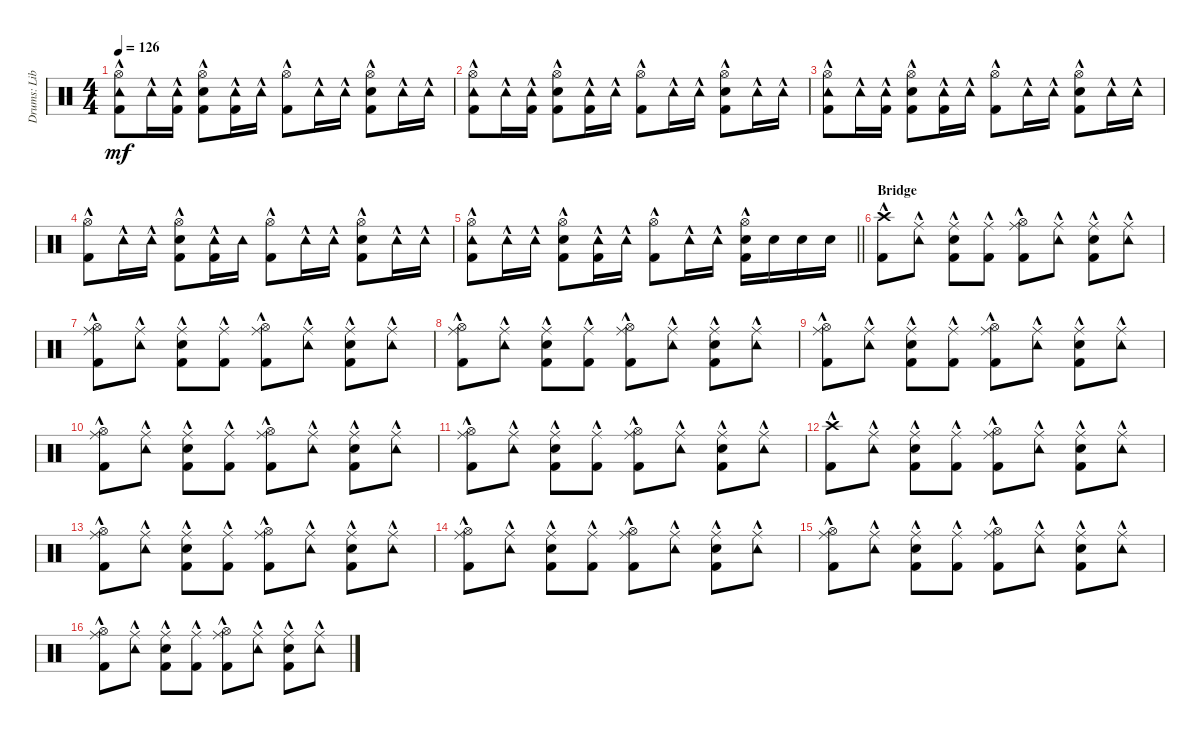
\track ("Drums: Liberty" "Drums: Lib") {instrument percussion}
\staff {score}
\articulation defaults
\ts (4 4)
\tempo 126
\clef neutral
\ks c
("Hi-Hat (open)" "Tambourine (hit)"{hac} "Kick (hit) 2"{hac}).8{dy mf} "Tambourine (hit)"{hac}.16 ("Tambourine (hit)"{hac} "Kick (hit) 2"{hac}).16 ("Hi-Hat (open)" "Snare (hit) 2"{hac} "Kick (hit) 2").8 ("Tambourine (hit)"{hac} "Kick (hit) 2"{hac}).16 "Tambourine (hit)"{hac}.16 ("Hi-Hat (open)" "Kick (hit) 2"{hac}).8 "Tambourine (hit)"{hac}.16 "Tambourine (hit)"{hac}.16 ("Hi-Hat (open)" "Snare (hit) 2"{hac} "Kick (hit) 2").8 "Tambourine (hit)"{hac}.16 "Tambourine (hit)"{hac}.16 |
("Hi-Hat (open)" "Tambourine (hit)"{hac} "Kick (hit) 2"{hac}).8 "Tambourine (hit)"{hac}.16 ("Tambourine (hit)"{hac} "Kick (hit) 2"{hac}).16 ("Hi-Hat (open)" "Snare (hit) 2"{hac} "Kick (hit) 2").8 ("Tambourine (hit)"{hac} "Kick (hit) 2"{hac}).16 "Tambourine (hit)"{hac}.16 ("Hi-Hat (open)" "Kick (hit) 2"{hac}).8 "Tambourine (hit)"{hac}.16 "Tambourine (hit)"{hac}.16 ("Hi-Hat (open)" "Snare (hit) 2"{hac} "Kick (hit) 2").8 "Tambourine (hit)"{hac}.16 "Tambourine (hit)"{hac}.16 |
("Hi-Hat (open)" "Tambourine (hit)"{hac} "Kick (hit) 2"{hac}).8 "Tambourine (hit)"{hac}.16 ("Tambourine (hit)"{hac} "Kick (hit) 2"{hac}).16 ("Hi-Hat (open)" "Snare (hit) 2"{hac} "Kick (hit) 2").8 ("Tambourine (hit)"{hac} "Kick (hit) 2"{hac}).16 "Tambourine (hit)"{hac}.16 ("Hi-Hat (open)" "Kick (hit) 2"{hac}).8 "Tambourine (hit)"{hac}.16 "Tambourine (hit)"{hac}.16 ("Hi-Hat (open)" "Snare (hit) 2"{hac} "Kick (hit) 2").8 "Tambourine (hit)"{hac}.16 "Tambourine (hit)"{hac}.16 |
("Hi-Hat (open)"{hac} "Kick (hit) 2"{hac}).8 "Tambourine (hit)"{hac}.16 "Tambourine (hit)"{hac}.16 ("Hi-Hat (open)"{hac} "Snare (hit) 2"{hac} "Kick (hit) 2"{hac}).8 ("Tambourine (hit)" "Kick (hit) 2"{hac}).16 "Tambourine (hit)".16 ("Hi-Hat (open)"{hac} "Kick (hit) 2"{hac}).8 "Tambourine (hit)"{hac}.16 "Tambourine (hit)"{hac}.16 ("Hi-Hat (open)"{hac} "Snare (hit) 2"{hac} "Kick (hit) 2"{hac}).8 "Tambourine (hit)"{hac}.16 "Tambourine (hit)"{hac}.16 |
\barLineRight lightlight
("Hi-Hat (open)"{hac} "Tambourine (hit)"{hac} "Kick (hit) 2"{hac}).8 "Tambourine (hit)"{hac}.16 "Tambourine (hit)"{hac}.16 ("Hi-Hat (open)"{hac} "Snare (hit) 2"{hac} "Kick (hit) 2"{hac}).8 ("Tambourine (hit)"{hac} "Kick (hit) 2"{hac}).16 "Tambourine (hit)"{hac}.16 ("Hi-Hat (open)"{hac} "Kick (hit) 2"{hac}).8 "Tambourine (hit)"{hac}.16 "Tambourine (hit)"{hac}.16 ("Hi-Hat (open)"{hac} "Snare (hit) 2"{hac} "Kick (hit) 2"{hac}).16 "Snare (hit) 2".16 "Snare (hit) 2".16 "Snare (hit) 2".16 |
\section ("" "Bridge")
("Crash high (hit)" "Kick (hit) 2"{hac}).8 ("Ride (middle)"{hac} "Tambourine (hit)").8 ("Ride (middle)"{hac} "Snare (hit) 2"{hac} "Kick (hit) 2"{hac}).8 ("Ride (middle)"{hac} "Kick (hit) 2"{hac}).8 ("Ride (middle)"{hac} "Hi-Hat (open)"{hac} "Kick (hit) 2"{hac}).8 ("Ride (middle)"{hac} "Tambourine (hit)").8 ("Ride (middle)"{hac} "Snare (hit) 2"{hac} "Kick (hit) 2"{hac}).8 ("Ride (middle)"{hac} "Tambourine (hit)").8 |
("Ride (middle)"{hac} "Hi-Hat (open)" "Kick (hit) 2"{hac}).8 ("Ride (middle)"{hac} "Tambourine (hit)").8 ("Ride (middle)"{hac} "Snare (hit) 2"{hac} "Kick (hit) 2"{hac}).8 ("Ride (middle)"{hac} "Kick (hit) 2"{hac}).8 ("Ride (middle)"{hac} "Hi-Hat (open)"{hac} "Kick (hit) 2"{hac}).8 ("Ride (middle)"{hac} "Tambourine (hit)").8 ("Ride (middle)"{hac} "Snare (hit) 2"{hac} "Kick (hit) 2"{hac}).8 ("Ride (middle)"{hac} "Tambourine (hit)").8 |
("Ride (middle)"{hac} "Hi-Hat (open)" "Kick (hit) 2"{hac}).8 ("Ride (middle)"{hac} "Tambourine (hit)").8 ("Ride (middle)"{hac} "Snare (hit) 2"{hac} "Kick (hit) 2"{hac}).8 ("Ride (middle)"{hac} "Kick (hit) 2"{hac}).8 ("Ride (middle)"{hac} "Hi-Hat (open)"{hac} "Kick (hit) 2"{hac}).8 ("Ride (middle)"{hac} "Tambourine (hit)").8 ("Ride (middle)"{hac} "Snare (hit) 2"{hac} "Kick (hit) 2"{hac}).8 ("Ride (middle)"{hac} "Tambourine (hit)").8 |
("Ride (middle)"{hac} "Hi-Hat (open)" "Kick (hit) 2"{hac}).8 ("Ride (middle)"{hac} "Tambourine (hit)").8 ("Ride (middle)"{hac} "Snare (hit) 2"{hac} "Kick (hit) 2"{hac}).8 ("Ride (middle)"{hac} "Kick (hit) 2"{hac}).8 ("Ride (middle)"{hac} "Hi-Hat (open)"{hac} "Kick (hit) 2"{hac}).8 ("Ride (middle)"{hac} "Tambourine (hit)").8 ("Ride (middle)"{hac} "Snare (hit) 2"{hac} "Kick (hit) 2"{hac}).8 ("Ride (middle)"{hac} "Tambourine (hit)").8 |
("Ride (middle)"{hac} "Hi-Hat (open)" "Kick (hit) 2"{hac}).8 ("Ride (middle)"{hac} "Tambourine (hit)").8 ("Ride (middle)"{hac} "Snare (hit) 2"{hac} "Kick (hit) 2"{hac}).8 ("Ride (middle)"{hac} "Kick (hit) 2"{hac}).8 ("Ride (middle)"{hac} "Hi-Hat (open)"{hac} "Kick (hit) 2"{hac}).8 ("Ride (middle)"{hac} "Tambourine (hit)").8 ("Ride (middle)"{hac} "Snare (hit) 2"{hac} "Kick (hit) 2"{hac}).8 ("Ride (middle)"{hac} "Tambourine (hit)").8 |
("Ride (middle)"{hac} "Hi-Hat (open)" "Kick (hit) 2"{hac}).8 ("Ride (middle)"{hac} "Tambourine (hit)").8 ("Ride (middle)"{hac} "Snare (hit) 2"{hac} "Kick (hit) 2"{hac}).8 ("Ride (middle)"{hac} "Kick (hit) 2"{hac}).8 ("Ride (middle)"{hac} "Hi-Hat (open)"{hac} "Kick (hit) 2"{hac}).8 ("Ride (middle)"{hac} "Tambourine (hit)").8 ("Ride (middle)"{hac} "Snare (hit) 2"{hac} "Kick (hit) 2"{hac}).8 ("Ride (middle)"{hac} "Tambourine (hit)").8 |
("Crash high (hit)" "Kick (hit) 2"{hac}).8 ("Ride (middle)"{hac} "Tambourine (hit)").8 ("Ride (middle)"{hac} "Snare (hit) 2"{hac} "Kick (hit) 2"{hac}).8 ("Ride (middle)"{hac} "Kick (hit) 2"{hac}).8 ("Ride (middle)"{hac} "Hi-Hat (open)"{hac} "Kick (hit) 2"{hac}).8 ("Ride (middle)"{hac} "Tambourine (hit)").8 ("Ride (middle)"{hac} "Snare (hit) 2"{hac} "Kick (hit) 2"{hac}).8 ("Ride (middle)"{hac} "Tambourine (hit)").8 |
("Ride (middle)"{hac} "Hi-Hat (open)" "Kick (hit) 2"{hac}).8 ("Ride (middle)"{hac} "Tambourine (hit)").8 ("Ride (middle)"{hac} "Snare (hit) 2"{hac} "Kick (hit) 2"{hac}).8 ("Ride (middle)"{hac} "Kick (hit) 2"{hac}).8 ("Ride (middle)"{hac} "Hi-Hat (open)"{hac} "Kick (hit) 2"{hac}).8 ("Ride (middle)"{hac} "Tambourine (hit)").8 ("Ride (middle)"{hac} "Snare (hit) 2"{hac} "Kick (hit) 2"{hac}).8 ("Ride (middle)"{hac} "Tambourine (hit)").8 |
("Ride (middle)"{hac} "Hi-Hat (open)" "Kick (hit) 2"{hac}).8 ("Ride (middle)"{hac} "Tambourine (hit)").8 ("Ride (middle)"{hac} "Snare (hit) 2"{hac} "Kick (hit) 2"{hac}).8 ("Ride (middle)"{hac} "Kick (hit) 2"{hac}).8 ("Ride (middle)"{hac} "Hi-Hat (open)"{hac} "Kick (hit) 2"{hac}).8 ("Ride (middle)"{hac} "Tambourine (hit)").8 ("Ride (middle)"{hac} "Snare (hit) 2"{hac} "Kick (hit) 2"{hac}).8 ("Ride (middle)"{hac} "Tambourine (hit)").8 |
("Ride (middle)"{hac} "Hi-Hat (open)" "Kick (hit) 2"{hac}).8 ("Ride (middle)"{hac} "Tambourine (hit)").8 ("Ride (middle)"{hac} "Snare (hit) 2"{hac} "Kick (hit) 2"{hac}).8 ("Ride (middle)"{hac} "Kick (hit) 2"{hac}).8 ("Ride (middle)"{hac} "Hi-Hat (open)"{hac} "Kick (hit) 2"{hac}).8 ("Ride (middle)"{hac} "Tambourine (hit)").8 ("Ride (middle)"{hac} "Snare (hit) 2"{hac} "Kick (hit) 2"{hac}).8 ("Ride (middle)"{hac} "Tambourine (hit)").8 |
("Ride (middle)"{hac} "Hi-Hat (open)" "Kick (hit) 2"{hac}).8 ("Ride (middle)"{hac} "Tambourine (hit)").8 ("Ride (middle)"{hac} "Snare (hit) 2"{hac} "Kick (hit) 2"{hac}).8 ("Ride (middle)"{hac} "Kick (hit) 2"{hac}).8 ("Ride (middle)"{hac} "Hi-Hat (open)"{hac} "Kick (hit) 2"{hac}).8 ("Ride (middle)"{hac} "Tambourine (hit)").8 ("Ride (middle)"{hac} "Snare (hit) 2"{hac} "Kick (hit) 2"{hac}).8 ("Ride (middle)"{hac} "Tambourine (hit)").8
